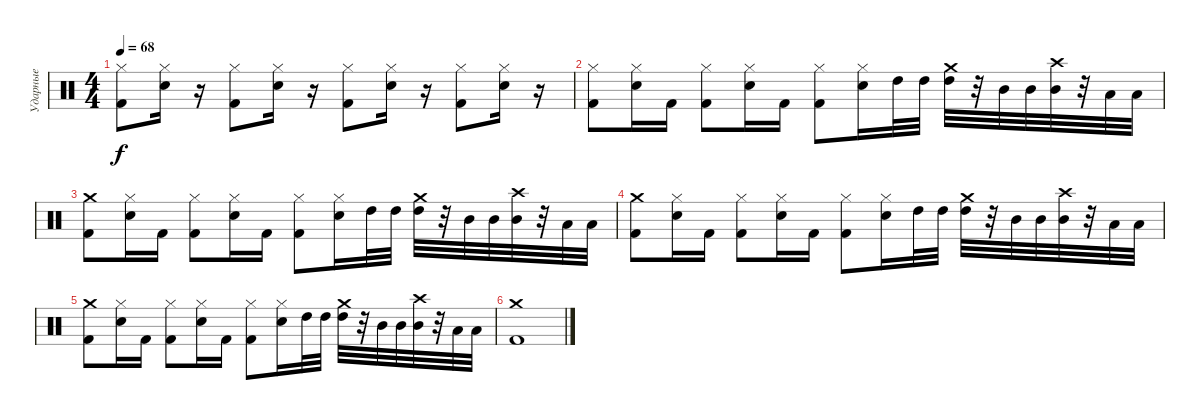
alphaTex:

\track ("Ударные" "Ударные") {instrument percussion}
\staff {score}
\articulation defaults
\ts (4 4)
\tempo 68
\clef neutral
\ks c
("Hi-Hat (closed)" "Kick (hit) 2").8{dy f} ("Hi-Hat (closed)" "Snare (hit) 2").16 r.16 ("Hi-Hat (closed)" "Kick (hit) 2").8 ("Hi-Hat (closed)" "Snare (hit) 2").16 r.16 ("Hi-Hat (closed)" "Kick (hit) 2").8 ("Hi-Hat (closed)" "Snare (hit) 2").16 r.16 ("Hi-Hat (closed)" "Kick (hit) 2").8 ("Hi-Hat (closed)" "Snare (hit) 2").16 r.16 |
("Hi-Hat (closed)" "Kick (hit) 2").8 ("Hi-Hat (closed)" "Snare (hit) 2").16 "Kick (hit) 2".16 ("Hi-Hat (closed)" "Kick (hit) 2").8 ("Hi-Hat (closed)" "Snare (hit) 2").16 "Kick (hit) 2".16 ("Hi-Hat (closed)" "Kick (hit) 2").8 ("Hi-Hat (closed)" "Snare (hit) 2").16 "High Tom (hit)".32 "High Tom (hit)".32 ("High Tom (hit)" "Crash medium (hit)").32 r.32 "Mid Tom (hit)".32 "Mid Tom (hit)".32 ("Mid Tom (hit)" "Crash high (hit)").32 r.32 "Low Tom (hit)".32 "Low Tom (hit)".32 |
("Crash medium (hit)" "Kick (hit) 2").8 ("Hi-Hat (closed)" "Snare (hit) 2").16 "Kick (hit) 2".16 ("Hi-Hat (closed)" "Kick (hit) 2").8 ("Hi-Hat (closed)" "Snare (hit) 2").16 "Kick (hit) 2".16 ("Hi-Hat (closed)" "Kick (hit) 2").8 ("Hi-Hat (closed)" "Snare (hit) 2").16 "High Tom (hit)".32 "High Tom (hit)".32 ("High Tom (hit)" "Crash medium (hit)").32 r.32 "Mid Tom (hit)".32 "Mid Tom (hit)".32 ("Mid Tom (hit)" "Crash high (hit)").32 r.32 "Low Tom (hit)".32 "Low Tom (hit)".32 |
("Crash medium (hit)" "Kick (hit) 2").8 ("Hi-Hat (closed)" "Snare (hit) 2").16 "Kick (hit) 2".16 ("Hi-Hat (closed)" "Kick (hit) 2").8 ("Hi-Hat (closed)" "Snare (hit) 2").16 "Kick (hit) 2".16 ("Hi-Hat (closed)" "Kick (hit) 2").8 ("Hi-Hat (closed)" "Snare (hit) 2").16 "High Tom (hit)".32 "High Tom (hit)".32 ("High Tom (hit)" "Crash medium (hit)").32 r.32 "Mid Tom (hit)".32 "Mid Tom (hit)".32 ("Mid Tom (hit)" "Crash high (hit)").32 r.32 "Low Tom (hit)".32 "Low Tom (hit)".32 |
("Crash medium (hit)" "Kick (hit) 2").8 ("Hi-Hat (closed)" "Snare (hit) 2").16 "Kick (hit) 2".16 ("Hi-Hat (closed)" "Kick (hit) 2").8 ("Hi-Hat (closed)" "Snare (hit) 2").16 "Kick (hit) 2".16 ("Hi-Hat (closed)" "Kick (hit) 2").8 ("Hi-Hat (closed)" "Snare (hit) 2").16 "High Tom (hit)".32 "High Tom (hit)".32 ("High Tom (hit)" "Crash medium (hit)").32 r.32 "Mid Tom (hit)".32 "Mid Tom (hit)".32 ("Mid Tom (hit)" "Crash high (hit)").32 r.32 "Low Tom (hit)".32 "Low Tom (hit)".32 |
("Crash medium (hit)" "Kick (hit) 2").1
